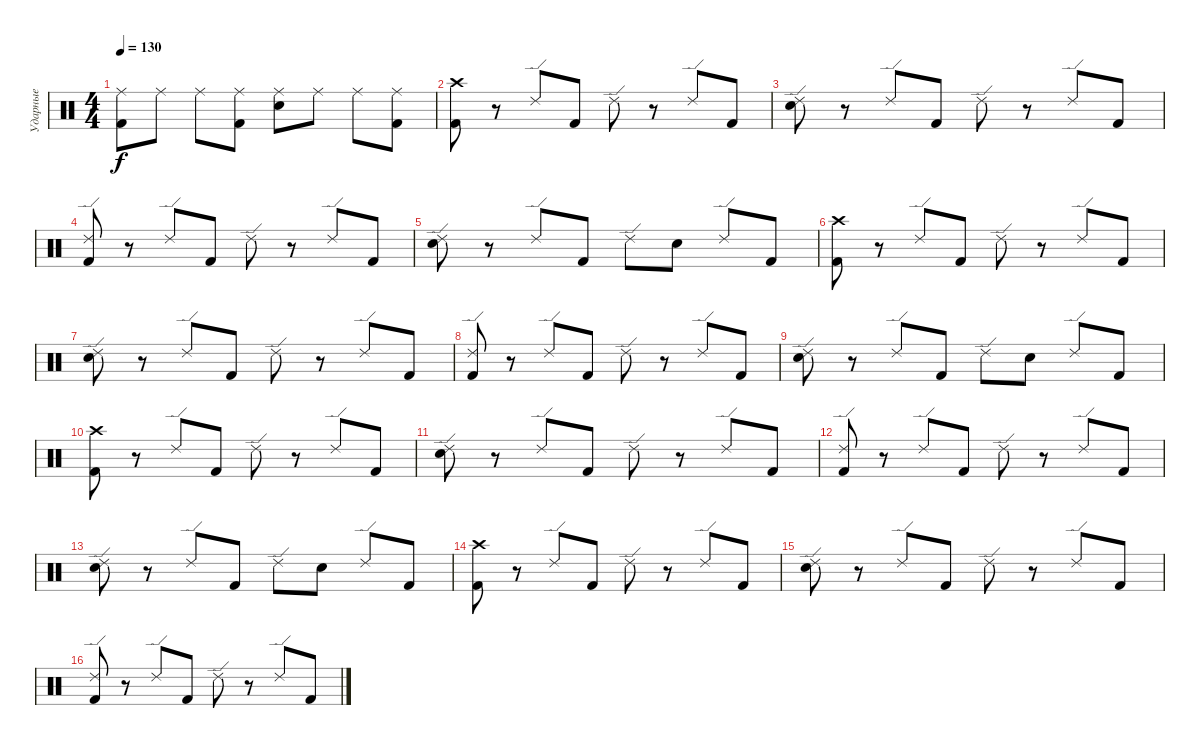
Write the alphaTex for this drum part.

\track ("Ударные" "Ударные") {instrument percussion}
\staff {score}
\articulation defaults
\ts (4 4)
\tempo 130
\clef neutral
\ks c
("Ride (middle)" "Kick (hit) 2").8{dy f} "Ride (middle)".8 "Ride (middle)".8 ("Ride (middle)" "Kick (hit) 2").8 ("Ride (middle)" "Electric Snare (hit)").8 "Ride (middle)".8 "Ride (middle)".8 ("Ride (middle)" "Kick (hit) 2").8 |
("Crash high (hit)" "Kick (hit) 2").8 r.8 "Ride (edge) 2".8 "Kick (hit) 2".8 "Ride (edge) 2".8 r.8 "Ride (edge) 2".8 "Kick (hit) 2".8 |
("Ride (edge) 2" "Electric Snare (hit)").8 r.8 "Ride (edge) 2".8 "Kick (hit) 2".8 "Ride (edge) 2".8 r.8 "Ride (edge) 2".8 "Kick (hit) 2".8 |
("Ride (edge) 2" "Kick (hit) 2").8 r.8 "Ride (edge) 2".8 "Kick (hit) 2".8 "Ride (edge) 2".8 r.8 "Ride (edge) 2".8 "Kick (hit) 2".8 |
("Ride (edge) 2" "Electric Snare (hit)").8 r.8 "Ride (edge) 2".8 "Kick (hit) 2".8 "Ride (edge) 2".8 "Electric Snare (hit)".8 "Ride (edge) 2".8 "Kick (hit) 2".8 |
("Crash high (hit)" "Kick (hit) 2").8 r.8 "Ride (edge) 2".8 "Kick (hit) 2".8 "Ride (edge) 2".8 r.8 "Ride (edge) 2".8 "Kick (hit) 2".8 |
("Ride (edge) 2" "Electric Snare (hit)").8 r.8 "Ride (edge) 2".8 "Kick (hit) 2".8 "Ride (edge) 2".8 r.8 "Ride (edge) 2".8 "Kick (hit) 2".8 |
("Ride (edge) 2" "Kick (hit) 2").8 r.8 "Ride (edge) 2".8 "Kick (hit) 2".8 "Ride (edge) 2".8 r.8 "Ride (edge) 2".8 "Kick (hit) 2".8 |
("Ride (edge) 2" "Electric Snare (hit)").8 r.8 "Ride (edge) 2".8 "Kick (hit) 2".8 "Ride (edge) 2".8 "Electric Snare (hit)".8 "Ride (edge) 2".8 "Kick (hit) 2".8 |
("Crash high (hit)" "Kick (hit) 2").8 r.8 "Ride (edge) 2".8 "Kick (hit) 2".8 "Ride (edge) 2".8 r.8 "Ride (edge) 2".8 "Kick (hit) 2".8 |
("Ride (edge) 2" "Electric Snare (hit)").8 r.8 "Ride (edge) 2".8 "Kick (hit) 2".8 "Ride (edge) 2".8 r.8 "Ride (edge) 2".8 "Kick (hit) 2".8 |
("Ride (edge) 2" "Kick (hit) 2").8 r.8 "Ride (edge) 2".8 "Kick (hit) 2".8 "Ride (edge) 2".8 r.8 "Ride (edge) 2".8 "Kick (hit) 2".8 |
("Ride (edge) 2" "Electric Snare (hit)").8 r.8 "Ride (edge) 2".8 "Kick (hit) 2".8 "Ride (edge) 2".8 "Electric Snare (hit)".8 "Ride (edge) 2".8 "Kick (hit) 2".8 |
("Crash high (hit)" "Kick (hit) 2").8 r.8 "Ride (edge) 2".8 "Kick (hit) 2".8 "Ride (edge) 2".8 r.8 "Ride (edge) 2".8 "Kick (hit) 2".8 |
("Ride (edge) 2" "Electric Snare (hit)").8 r.8 "Ride (edge) 2".8 "Kick (hit) 2".8 "Ride (edge) 2".8 r.8 "Ride (edge) 2".8 "Kick (hit) 2".8 |
("Ride (edge) 2" "Kick (hit) 2").8 r.8 "Ride (edge) 2".8 "Kick (hit) 2".8 "Ride (edge) 2".8 r.8 "Ride (edge) 2".8 "Kick (hit) 2".8
